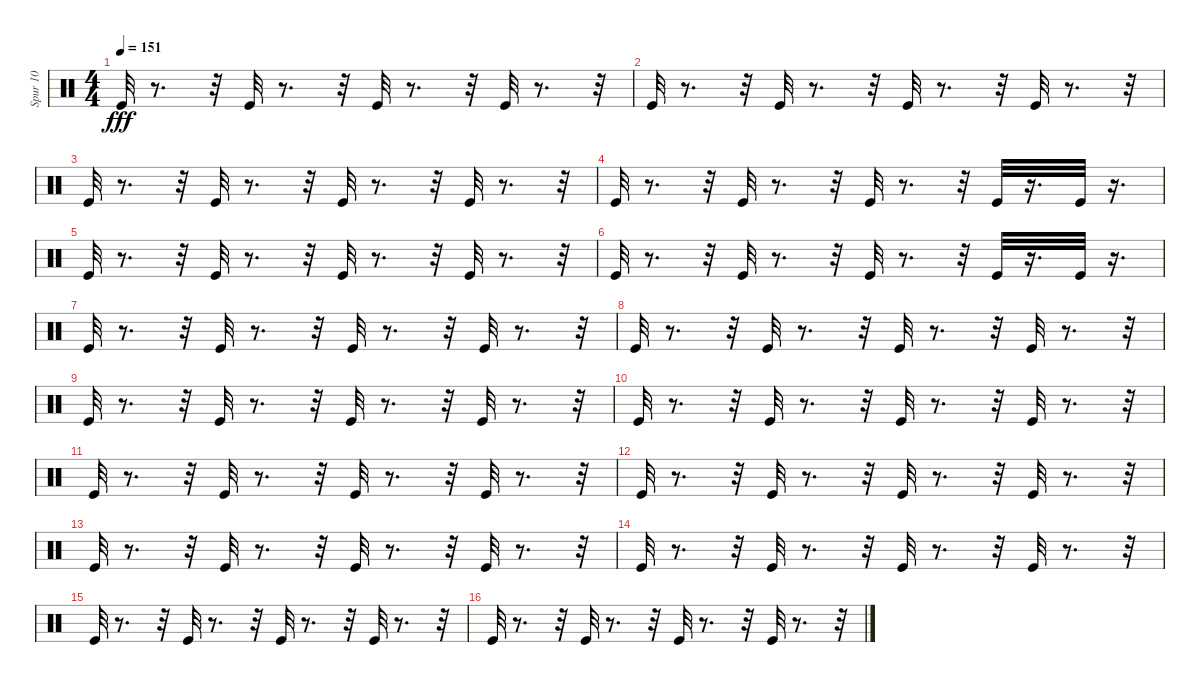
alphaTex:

\track ("Spur 10" "Spur 10") {instrument percussion}
\staff {score}
\articulation defaults
\ts (4 4)
\tempo 151
\clef neutral
\ks c "Kick (hit)".32{dy fff}
r.8{d} r.32 "Kick (hit)".32 r.8{d} r.32 "Kick (hit)".32 r.8{d} r.32 "Kick (hit)".32 r.8{d} r.32 |
"Kick (hit)".32 r.8{d} r.32 "Kick (hit)".32 r.8{d} r.32 "Kick (hit)".32 r.8{d} r.32 "Kick (hit)".32 r.8{d} r.32 |
"Kick (hit)".32 r.8{d} r.32 "Kick (hit)".32 r.8{d} r.32 "Kick (hit)".32 r.8{d} r.32 "Kick (hit)".32 r.8{d} r.32 |
"Kick (hit)".32 r.8{d} r.32 "Kick (hit)".32 r.8{d} r.32 "Kick (hit)".32 r.8{d} r.32 "Kick (hit)".32 r.16{d} "Kick (hit)".32 r.16{d} |
"Kick (hit)".32 r.8{d} r.32 "Kick (hit)".32 r.8{d} r.32 "Kick (hit)".32 r.8{d} r.32 "Kick (hit)".32 r.8{d} r.32 |
"Kick (hit)".32 r.8{d} r.32 "Kick (hit)".32 r.8{d} r.32 "Kick (hit)".32 r.8{d} r.32 "Kick (hit)".32 r.16{d} "Kick (hit)".32 r.16{d} |
"Kick (hit)".32 r.8{d} r.32 "Kick (hit)".32 r.8{d} r.32 "Kick (hit)".32 r.8{d} r.32 "Kick (hit)".32 r.8{d} r.32 |
"Kick (hit)".32 r.8{d} r.32 "Kick (hit)".32 r.8{d} r.32 "Kick (hit)".32 r.8{d} r.32 "Kick (hit)".32 r.8{d} r.32 |
"Kick (hit)".32 r.8{d} r.32 "Kick (hit)".32 r.8{d} r.32 "Kick (hit)".32 r.8{d} r.32 "Kick (hit)".32 r.8{d} r.32 |
"Kick (hit)".32 r.8{d} r.32 "Kick (hit)".32 r.8{d} r.32 "Kick (hit)".32 r.8{d} r.32 "Kick (hit)".32 r.8{d} r.32 |
"Kick (hit)".32 r.8{d} r.32 "Kick (hit)".32 r.8{d} r.32 "Kick (hit)".32 r.8{d} r.32 "Kick (hit)".32 r.8{d} r.32 |
"Kick (hit)".32 r.8{d} r.32 "Kick (hit)".32 r.8{d} r.32 "Kick (hit)".32 r.8{d} r.32 "Kick (hit)".32 r.8{d} r.32 |
"Kick (hit)".32 r.8{d} r.32 "Kick (hit)".32 r.8{d} r.32 "Kick (hit)".32 r.8{d} r.32 "Kick (hit)".32 r.8{d} r.32 |
"Kick (hit)".32 r.8{d} r.32 "Kick (hit)".32 r.8{d} r.32 "Kick (hit)".32 r.8{d} r.32 "Kick (hit)".32 r.8{d} r.32 |
"Kick (hit)".32 r.8{d} r.32 "Kick (hit)".32 r.8{d} r.32 "Kick (hit)".32 r.8{d} r.32 "Kick (hit)".32 r.8{d} r.32 |
"Kick (hit)".32 r.8{d} r.32 "Kick (hit)".32 r.8{d} r.32 "Kick (hit)".32 r.8{d} r.32 "Kick (hit)".32 r.8{d} r.32
